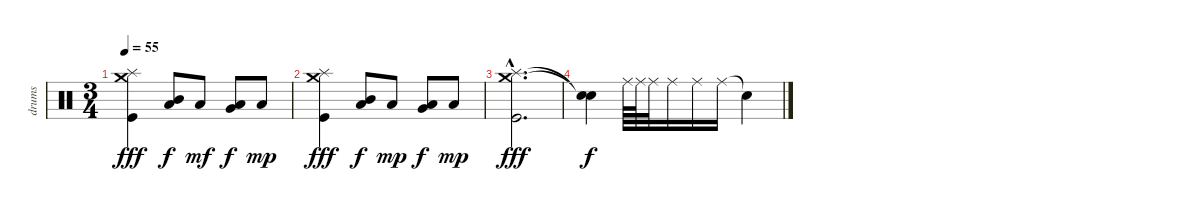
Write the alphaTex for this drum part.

\track ("drums" "drums") {instrument percussion}
\staff {score}
\articulation defaults
\ts (3 4)
\tempo 55
\clef neutral
\ks c
("Crash medium (hit)" "Splash (hit)" "Kick (hit)").4{dy fff} ("Mid Tom (hit)" "Low Tom (hit)").8{dy f} "Low Tom (hit)".8{dy mf} ("Very Low Tom (hit)" "Low Tom (hit)").8{dy f} "Low Tom (hit)".8{dy mp} |
("Crash medium (hit)" "Splash (hit)" "Kick (hit)").4{dy fff} ("Mid Tom (hit)" "Low Tom (hit)").8{dy f} "Low Tom (hit)".8{dy mp} ("Very Low Tom (hit)" "Low Tom (hit)").8{dy f} "Low Tom (hit)".8{dy mp} |
("Crash medium (hit)"{hac} "Splash (hit)"{hac} "Kick (hit)"{hac}).2{d dy fff} |
("Snare (hit)"{t} "Snare (hit)"{t}).4{dy f} "Ride (middle)".64 "Ride (middle)".64 "Ride (middle)".32 "Ride (middle)".16 "Ride (middle)".16 "Ride (middle)".16 "Snare (hit)"{t}.4
